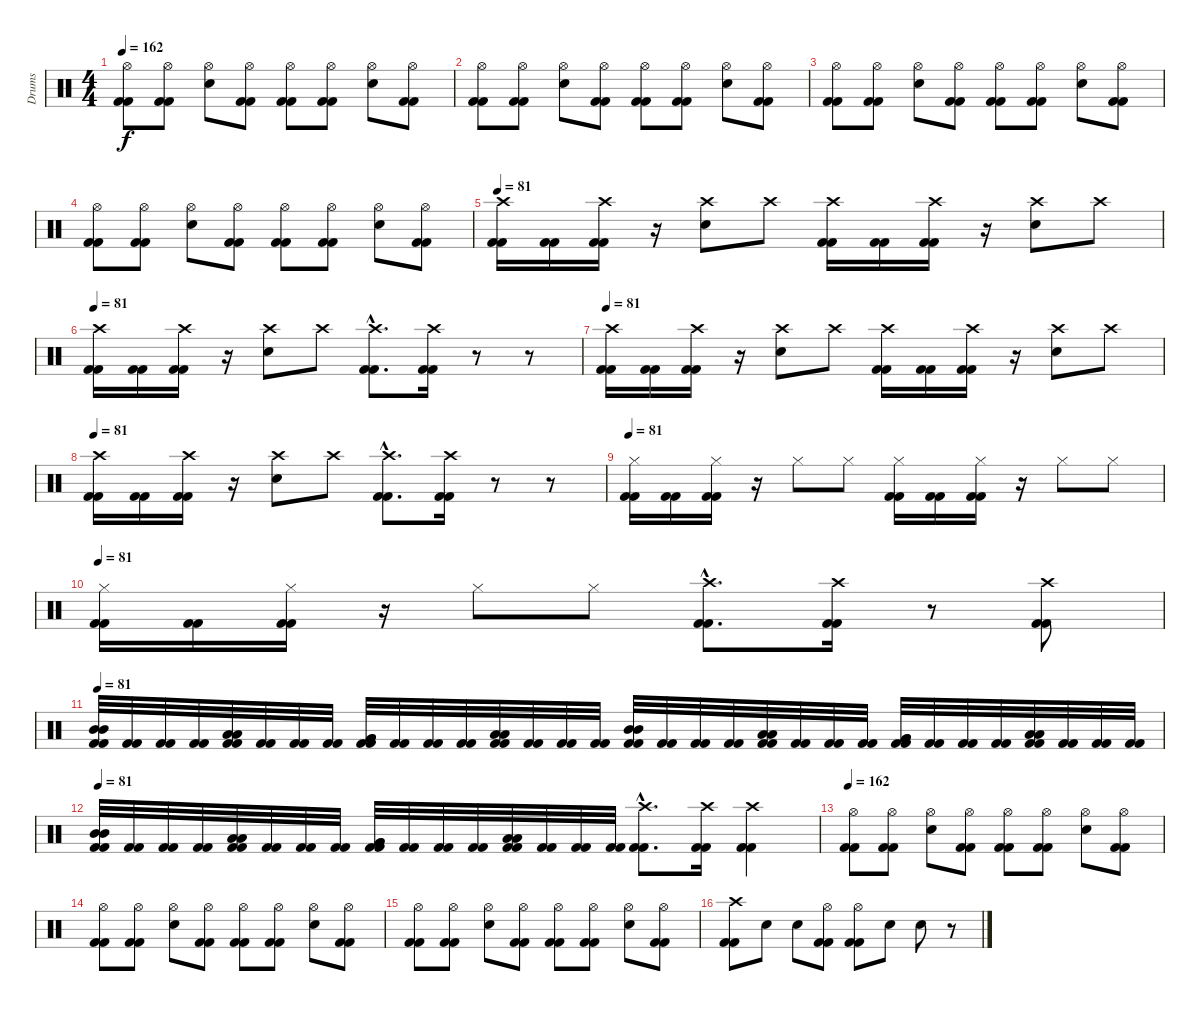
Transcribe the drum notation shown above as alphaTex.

\track ("Drums" "Drums") {instrument percussion}
\staff {score}
\articulation defaults
\ts (4 4)
\tempo 162
\clef neutral
\ks c
("Hi-Hat (open)" "Kick (hit) 2" "Kick (hit) 2").8{dy f} ("Hi-Hat (open)" "Kick (hit) 2" "Kick (hit) 2").8 ("Hi-Hat (open)" "Electric Snare (hit)").8 ("Hi-Hat (open)" "Kick (hit) 2" "Kick (hit) 2").8 ("Hi-Hat (open)" "Kick (hit) 2" "Kick (hit) 2").8 ("Hi-Hat (open)" "Kick (hit) 2" "Kick (hit) 2").8 ("Hi-Hat (open)" "Electric Snare (hit)").8 ("Hi-Hat (open)" "Kick (hit) 2" "Kick (hit) 2").8 |
("Hi-Hat (open)" "Kick (hit) 2" "Kick (hit) 2").8 ("Hi-Hat (open)" "Kick (hit) 2" "Kick (hit) 2").8 ("Hi-Hat (open)" "Electric Snare (hit)").8 ("Hi-Hat (open)" "Kick (hit) 2" "Kick (hit) 2").8 ("Hi-Hat (open)" "Kick (hit) 2" "Kick (hit) 2").8 ("Hi-Hat (open)" "Kick (hit) 2" "Kick (hit) 2").8 ("Hi-Hat (open)" "Electric Snare (hit)").8 ("Hi-Hat (open)" "Kick (hit) 2" "Kick (hit) 2").8 |
("Hi-Hat (open)" "Kick (hit) 2" "Kick (hit) 2").8 ("Hi-Hat (open)" "Kick (hit) 2" "Kick (hit) 2").8 ("Hi-Hat (open)" "Electric Snare (hit)").8 ("Hi-Hat (open)" "Kick (hit) 2" "Kick (hit) 2").8 ("Hi-Hat (open)" "Kick (hit) 2" "Kick (hit) 2").8 ("Hi-Hat (open)" "Kick (hit) 2" "Kick (hit) 2").8 ("Hi-Hat (open)" "Electric Snare (hit)").8 ("Hi-Hat (open)" "Kick (hit) 2" "Kick (hit) 2").8 |
("Hi-Hat (open)" "Kick (hit) 2" "Kick (hit) 2").8 ("Hi-Hat (open)" "Kick (hit) 2" "Kick (hit) 2").8 ("Hi-Hat (open)" "Electric Snare (hit)").8 ("Hi-Hat (open)" "Kick (hit) 2" "Kick (hit) 2").8 ("Hi-Hat (open)" "Kick (hit) 2" "Kick (hit) 2").8 ("Hi-Hat (open)" "Kick (hit) 2" "Kick (hit) 2").8 ("Hi-Hat (open)" "Electric Snare (hit)").8 ("Hi-Hat (open)" "Kick (hit) 2" "Kick (hit) 2").8 |
\tempo 81
("Crash high (hit)" "Kick (hit) 2" "Kick (hit) 2").16 ("Kick (hit) 2" "Kick (hit) 2").16 ("Crash high (hit)" "Kick (hit) 2" "Kick (hit) 2").16 r.16 ("Crash high (hit)" "Electric Snare (hit)").8 "Crash high (hit)".8 ("Crash high (hit)" "Kick (hit) 2" "Kick (hit) 2").16 ("Kick (hit) 2" "Kick (hit) 2").16 ("Crash high (hit)" "Kick (hit) 2" "Kick (hit) 2").16 r.16 ("Crash high (hit)" "Electric Snare (hit)").8 "Crash high (hit)".8 |
\tempo 81
("Crash high (hit)" "Kick (hit) 2" "Kick (hit) 2").16 ("Kick (hit) 2" "Kick (hit) 2").16 ("Crash high (hit)" "Kick (hit) 2" "Kick (hit) 2").16 r.16 ("Crash high (hit)" "Electric Snare (hit)").8 "Crash high (hit)".8 ("Crash high (hit)"{hac} "Kick (hit) 2"{hac} "Kick (hit) 2"{hac}).8{d} ("Crash high (hit)" "Kick (hit) 2" "Kick (hit) 2").16 r.8 r.8 |
\tempo 81
("Crash high (hit)" "Kick (hit) 2" "Kick (hit) 2").16 ("Kick (hit) 2" "Kick (hit) 2").16 ("Crash high (hit)" "Kick (hit) 2" "Kick (hit) 2").16 r.16 ("Crash high (hit)" "Electric Snare (hit)").8 "Crash high (hit)".8 ("Crash high (hit)" "Kick (hit) 2" "Kick (hit) 2").16 ("Kick (hit) 2" "Kick (hit) 2").16 ("Crash high (hit)" "Kick (hit) 2" "Kick (hit) 2").16 r.16 ("Crash high (hit)" "Electric Snare (hit)").8 "Crash high (hit)".8 |
\tempo 81
("Crash high (hit)" "Kick (hit) 2" "Kick (hit) 2").16 ("Kick (hit) 2" "Kick (hit) 2").16 ("Crash high (hit)" "Kick (hit) 2" "Kick (hit) 2").16 r.16 ("Crash high (hit)" "Electric Snare (hit)").8 "Crash high (hit)".8 ("Crash high (hit)"{hac} "Kick (hit) 2"{hac} "Kick (hit) 2"{hac}).8{d} ("Crash high (hit)" "Kick (hit) 2" "Kick (hit) 2").16 r.8 r.8 |
\tempo 81
("Hi-Hat (closed)" "Kick (hit) 2" "Kick (hit) 2").16 ("Kick (hit) 2" "Kick (hit) 2").16 ("Hi-Hat (closed)" "Kick (hit) 2" "Kick (hit) 2").16 r.16 "Hi-Hat (closed)".8 "Hi-Hat (closed)".8 ("Hi-Hat (closed)" "Kick (hit) 2" "Kick (hit) 2").16 ("Kick (hit) 2" "Kick (hit) 2").16 ("Hi-Hat (closed)" "Kick (hit) 2" "Kick (hit) 2").16 r.16 "Hi-Hat (closed)".8 "Hi-Hat (closed)".8 |
\tempo 81
("Hi-Hat (closed)" "Kick (hit) 2" "Kick (hit) 2").16 ("Kick (hit) 2" "Kick (hit) 2").16 ("Hi-Hat (closed)" "Kick (hit) 2" "Kick (hit) 2").16 r.16 "Hi-Hat (closed)".8 "Hi-Hat (closed)".8 ("Crash high (hit)"{hac} "Kick (hit) 2"{hac} "Kick (hit) 2"{hac}).8{d} ("Crash high (hit)" "Kick (hit) 2" "Kick (hit) 2").16 r.8 ("Crash high (hit)" "Kick (hit) 2" "Kick (hit) 2").8 |
\tempo 81
("Mid Tom (hit)" "Mid Tom (hit)" "Kick (hit) 2" "Kick (hit) 2").32 ("Kick (hit) 2" "Kick (hit) 2").32 ("Kick (hit) 2" "Kick (hit) 2").32 ("Kick (hit) 2" "Kick (hit) 2").32 ("Low Tom (hit)" "Low Tom (hit)" "Kick (hit) 2" "Kick (hit) 2").32 ("Kick (hit) 2" "Kick (hit) 2").32 ("Kick (hit) 2" "Kick (hit) 2").32 ("Kick (hit) 2" "Kick (hit) 2").32 ("Very Low Tom (hit)" "Very Low Tom (hit)" "Kick (hit) 2" "Kick (hit) 2").32 ("Kick (hit) 2" "Kick (hit) 2").32 ("Kick (hit) 2" "Kick (hit) 2").32 ("Kick (hit) 2" "Kick (hit) 2").32 ("Low Floor Tom (hit)" "Low Floor Tom (hit)" "Kick (hit) 2" "Kick (hit) 2").32 ("Kick (hit) 2" "Kick (hit) 2").32 ("Kick (hit) 2" "Kick (hit) 2").32 ("Kick (hit) 2" "Kick (hit) 2").32 ("Mid Tom (hit)" "Mid Tom (hit)" "Kick (hit) 2" "Kick (hit) 2").32 ("Kick (hit) 2" "Kick (hit) 2").32 ("Kick (hit) 2" "Kick (hit) 2").32 ("Kick (hit) 2" "Kick (hit) 2").32 ("Low Tom (hit)" "Low Tom (hit)" "Kick (hit) 2" "Kick (hit) 2").32 ("Kick (hit) 2" "Kick (hit) 2").32 ("Kick (hit) 2" "Kick (hit) 2").32 ("Kick (hit) 2" "Kick (hit) 2").32 ("Very Low Tom (hit)" "Very Low Tom (hit)" "Kick (hit) 2" "Kick (hit) 2").32 ("Kick (hit) 2" "Kick (hit) 2").32 ("Kick (hit) 2" "Kick (hit) 2").32 ("Kick (hit) 2" "Kick (hit) 2").32 ("Low Floor Tom (hit)" "Low Floor Tom (hit)" "Kick (hit) 2" "Kick (hit) 2").32 ("Kick (hit) 2" "Kick (hit) 2").32 ("Kick (hit) 2" "Kick (hit) 2").32 ("Kick (hit) 2" "Kick (hit) 2").32 |
\tempo 81
("Mid Tom (hit)" "Mid Tom (hit)" "Kick (hit) 2" "Kick (hit) 2").32 ("Kick (hit) 2" "Kick (hit) 2").32 ("Kick (hit) 2" "Kick (hit) 2").32 ("Kick (hit) 2" "Kick (hit) 2").32 ("Low Tom (hit)" "Low Tom (hit)" "Kick (hit) 2" "Kick (hit) 2").32 ("Kick (hit) 2" "Kick (hit) 2").32 ("Kick (hit) 2" "Kick (hit) 2").32 ("Kick (hit) 2" "Kick (hit) 2").32 ("Very Low Tom (hit)" "Very Low Tom (hit)" "Kick (hit) 2" "Kick (hit) 2").32 ("Kick (hit) 2" "Kick (hit) 2").32 ("Kick (hit) 2" "Kick (hit) 2").32 ("Kick (hit) 2" "Kick (hit) 2").32 ("Low Floor Tom (hit)" "Low Floor Tom (hit)" "Kick (hit) 2" "Kick (hit) 2").32 ("Kick (hit) 2" "Kick (hit) 2").32 ("Kick (hit) 2" "Kick (hit) 2").32 ("Kick (hit) 2" "Kick (hit) 2").32 ("Crash high (hit)"{hac} "Kick (hit) 2"{hac} "Kick (hit) 2"{hac}).8{d} ("Crash high (hit)" "Kick (hit) 2" "Kick (hit) 2").16 ("Crash high (hit)" "Kick (hit) 2" "Kick (hit) 2").4 |
\tempo 162
("Hi-Hat (open)" "Kick (hit) 2" "Kick (hit) 2").8 ("Hi-Hat (open)" "Kick (hit) 2" "Kick (hit) 2").8 ("Hi-Hat (open)" "Electric Snare (hit)").8 ("Hi-Hat (open)" "Kick (hit) 2" "Kick (hit) 2").8 ("Hi-Hat (open)" "Kick (hit) 2" "Kick (hit) 2").8 ("Hi-Hat (open)" "Kick (hit) 2" "Kick (hit) 2").8 ("Hi-Hat (open)" "Electric Snare (hit)").8 ("Hi-Hat (open)" "Kick (hit) 2" "Kick (hit) 2").8 |
("Hi-Hat (open)" "Kick (hit) 2" "Kick (hit) 2").8 ("Hi-Hat (open)" "Kick (hit) 2" "Kick (hit) 2").8 ("Hi-Hat (open)" "Electric Snare (hit)").8 ("Hi-Hat (open)" "Kick (hit) 2" "Kick (hit) 2").8 ("Hi-Hat (open)" "Kick (hit) 2" "Kick (hit) 2").8 ("Hi-Hat (open)" "Kick (hit) 2" "Kick (hit) 2").8 ("Hi-Hat (open)" "Electric Snare (hit)").8 ("Hi-Hat (open)" "Kick (hit) 2" "Kick (hit) 2").8 |
("Hi-Hat (open)" "Kick (hit) 2" "Kick (hit) 2").8 ("Hi-Hat (open)" "Kick (hit) 2" "Kick (hit) 2").8 ("Hi-Hat (open)" "Electric Snare (hit)").8 ("Hi-Hat (open)" "Kick (hit) 2" "Kick (hit) 2").8 ("Hi-Hat (open)" "Kick (hit) 2" "Kick (hit) 2").8 ("Hi-Hat (open)" "Kick (hit) 2" "Kick (hit) 2").8 ("Hi-Hat (open)" "Electric Snare (hit)").8 ("Hi-Hat (open)" "Kick (hit) 2" "Kick (hit) 2").8 |
("Crash high (hit)" "Kick (hit) 2" "Kick (hit) 2").8 "Electric Snare (hit)".8 "Electric Snare (hit)".8 ("Hi-Hat (open)" "Kick (hit) 2" "Kick (hit) 2").8 ("Hi-Hat (open)" "Kick (hit) 2" "Kick (hit) 2").8 "Electric Snare (hit)".8 "Electric Snare (hit)".8 r.8
